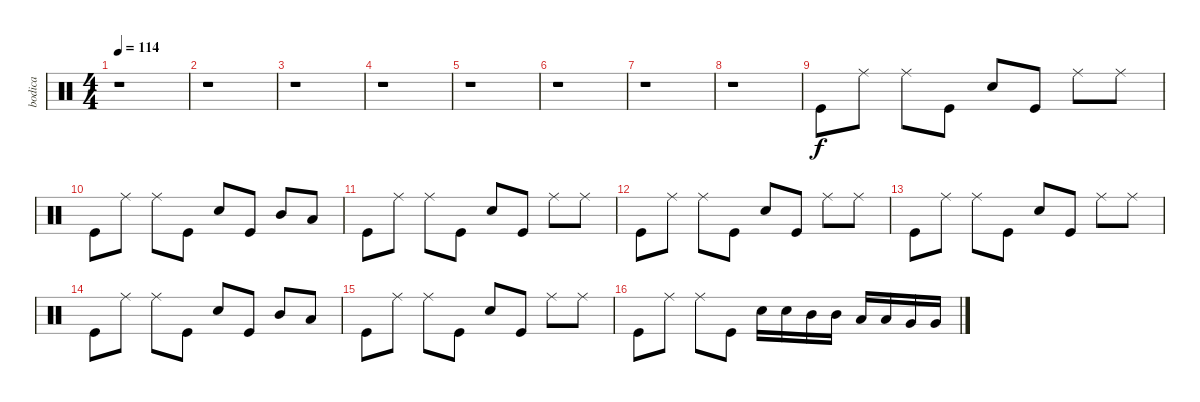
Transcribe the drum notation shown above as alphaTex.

\track ("bodica" "bodica") {instrument percussion}
\staff {score}
\articulation defaults
\ts (4 4)
\tempo 114
\clef neutral
\ks c
r.1{dy f} |
r.1 |
r.1 |
r.1 |
r.1 |
r.1 |
r.1 |
r.1 |
"Kick (hit)".8 "Ride (middle)".8 "Ride (middle)".8 "Kick (hit)".8 "Snare (hit) 2".8 "Kick (hit)".8 "Ride (middle)".8 "Ride (middle)".8 |
"Kick (hit)".8 "Ride (middle)".8 "Ride (middle)".8 "Kick (hit)".8 "Snare (hit) 2".8 "Kick (hit)".8 "Mid Tom (hit)".8 "Low Tom (hit)".8 |
"Kick (hit)".8 "Ride (middle)".8 "Ride (middle)".8 "Kick (hit)".8 "Snare (hit) 2".8 "Kick (hit)".8 "Ride (middle)".8 "Ride (middle)".8 |
"Kick (hit)".8 "Ride (middle)".8 "Ride (middle)".8 "Kick (hit)".8 "Snare (hit) 2".8 "Kick (hit)".8 "Ride (middle)".8 "Ride (middle)".8 |
"Kick (hit)".8 "Ride (middle)".8 "Ride (middle)".8 "Kick (hit)".8 "Snare (hit) 2".8 "Kick (hit)".8 "Ride (middle)".8 "Ride (middle)".8 |
"Kick (hit)".8 "Ride (middle)".8 "Ride (middle)".8 "Kick (hit)".8 "Snare (hit) 2".8 "Kick (hit)".8 "Mid Tom (hit)".8 "Low Tom (hit)".8 |
"Kick (hit)".8 "Ride (middle)".8 "Ride (middle)".8 "Kick (hit)".8 "Snare (hit) 2".8 "Kick (hit)".8 "Ride (middle)".8 "Ride (middle)".8 |
"Kick (hit)".8 "Ride (middle)".8 "Ride (middle)".8 "Kick (hit)".8 "Snare (hit) 2".16 "Snare (hit) 2".16 "Mid Tom (hit)".16 "Mid Tom (hit)".16 "Low Tom (hit)".16 "Low Tom (hit)".16 "Very Low Tom (hit)".16 "Very Low Tom (hit)".16
